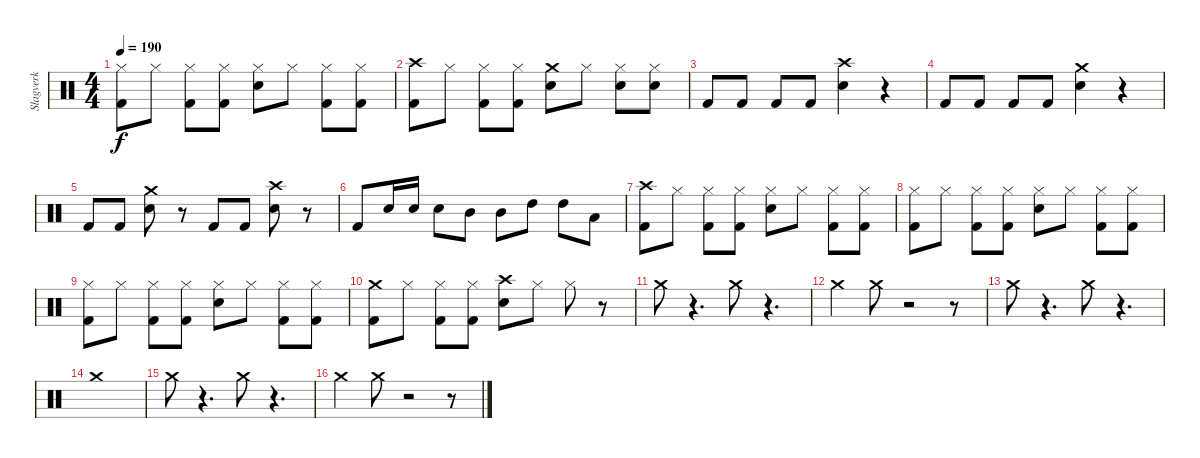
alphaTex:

\track ("Slagverk" "Slagverk") {instrument percussion}
\staff {score}
\articulation defaults
\ts (4 4)
\tempo 190
\clef neutral
\ks c
("Hi-Hat (closed)" "Kick (hit) 2").8{dy f} "Hi-Hat (closed)".8 ("Hi-Hat (closed)" "Kick (hit) 2").8 ("Hi-Hat (closed)" "Kick (hit) 2").8 ("Hi-Hat (closed)" "Snare (hit) 2").8 "Hi-Hat (closed)".8 ("Hi-Hat (closed)" "Kick (hit) 2").8 ("Hi-Hat (closed)" "Kick (hit) 2").8 |
("Crash high (hit)" "Kick (hit) 2").8 "Hi-Hat (closed)".8 ("Hi-Hat (closed)" "Kick (hit) 2").8 ("Hi-Hat (closed)" "Kick (hit) 2").8 ("Crash medium (hit)" "Snare (hit) 2").8 "Hi-Hat (closed)".8 ("Hi-Hat (closed)" "Snare (hit) 2").8 ("Hi-Hat (closed)" "Snare (hit) 2").8 |
"Kick (hit) 2".8 "Kick (hit) 2".8 "Kick (hit) 2".8 "Kick (hit) 2".8 ("Crash high (hit)" "Snare (hit) 2").4 r.4 |
"Kick (hit) 2".8 "Kick (hit) 2".8 "Kick (hit) 2".8 "Kick (hit) 2".8 ("Crash medium (hit)" "Snare (hit) 2").4 r.4 |
"Kick (hit) 2".8 "Kick (hit) 2".8 ("Crash medium (hit)" "Snare (hit) 2").8 r.8 "Kick (hit) 2".8 "Kick (hit) 2".8 ("Crash high (hit)" "Snare (hit) 2").8 r.8 |
"Kick (hit) 2".8 "Snare (hit) 2".16 "Snare (hit) 2".16 "Snare (hit) 2".8 "Mid Tom (hit)".8 "Mid Tom (hit)".8 "High Tom (hit)".8 "High Tom (hit)".8 "Low Tom (hit)".8 |
("Crash high (hit)" "Kick (hit) 2").8 "Hi-Hat (closed)".8 ("Hi-Hat (closed)" "Kick (hit) 2").8 ("Hi-Hat (closed)" "Kick (hit) 2").8 ("Hi-Hat (closed)" "Snare (hit) 2").8 "Hi-Hat (closed)".8 ("Hi-Hat (closed)" "Kick (hit) 2").8 ("Hi-Hat (closed)" "Kick (hit) 2").8 |
("Hi-Hat (closed)" "Kick (hit) 2").8 "Hi-Hat (closed)".8 ("Hi-Hat (closed)" "Kick (hit) 2").8 ("Hi-Hat (closed)" "Kick (hit) 2").8 ("Hi-Hat (closed)" "Snare (hit) 2").8 "Hi-Hat (closed)".8 ("Hi-Hat (closed)" "Kick (hit) 2").8 ("Hi-Hat (closed)" "Kick (hit) 2").8 |
("Hi-Hat (closed)" "Kick (hit) 2").8 "Hi-Hat (closed)".8 ("Hi-Hat (closed)" "Kick (hit) 2").8 ("Hi-Hat (closed)" "Kick (hit) 2").8 ("Hi-Hat (closed)" "Snare (hit) 2").8 "Hi-Hat (closed)".8 ("Hi-Hat (closed)" "Kick (hit) 2").8 ("Hi-Hat (closed)" "Kick (hit) 2").8 |
("Crash medium (hit)" "Kick (hit) 2").8 "Hi-Hat (closed)".8 ("Hi-Hat (closed)" "Kick (hit) 2").8 ("Hi-Hat (closed)" "Kick (hit) 2").8 ("Crash high (hit)" "Snare (hit) 2").8 "Hi-Hat (closed)".8 "Hi-Hat (closed)".8 r.8 |
"Crash medium (hit)".8 r.4{d} "Crash medium (hit)".8 r.4{d} |
"Crash medium (hit)".4 "Crash medium (hit)".8 r.2 r.8 |
"Crash medium (hit)".8 r.4{d} "Crash medium (hit)".8 r.4{d} |
"Crash medium (hit)".1 |
"Crash medium (hit)".8 r.4{d} "Crash medium (hit)".8 r.4{d} |
"Crash medium (hit)".4 "Crash medium (hit)".8 r.2 r.8
